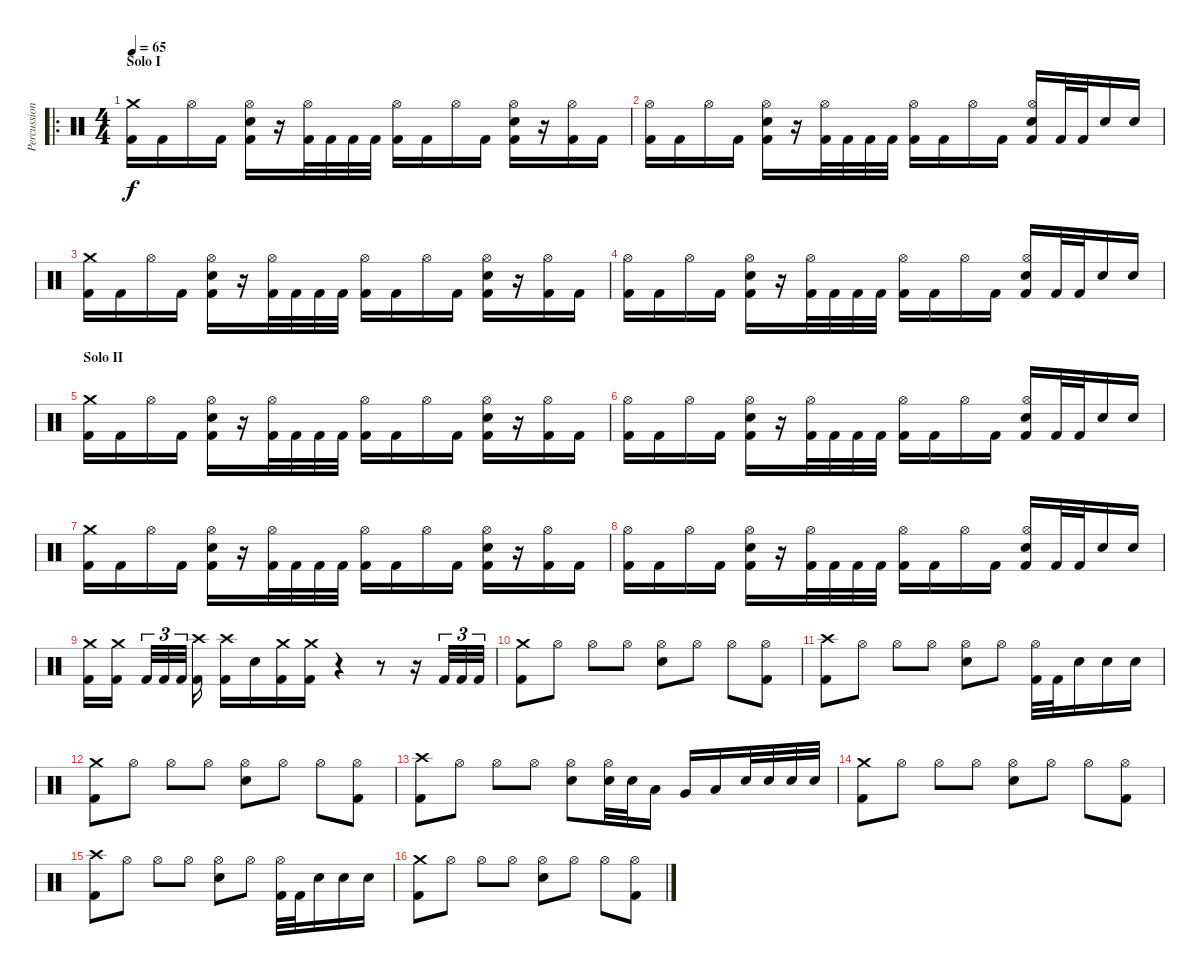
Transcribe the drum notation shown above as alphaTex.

\track ("Percussion" "Percussion") {instrument percussion}
\staff {score}
\articulation defaults
\ro
\ts (4 4)
\section ("" "Solo I")
\tempo 65
\clef neutral
\ks c
("Crash medium (hit)" "Kick (hit) 2").16{dy f} "Kick (hit) 2".16 "Hi-Hat (open)".16 "Kick (hit) 2".16 ("Hi-Hat (open)" "Electric Snare (hit)" "Kick (hit) 2").16 r.16 ("Hi-Hat (open)" "Kick (hit) 2").32 "Kick (hit) 2".32 "Kick (hit) 2".32 "Kick (hit) 2".32 ("Hi-Hat (open)" "Kick (hit) 2").16 "Kick (hit) 2".16 "Hi-Hat (open)".16 "Kick (hit) 2".16 ("Hi-Hat (open)" "Electric Snare (hit)" "Kick (hit) 2").16 r.16 ("Hi-Hat (open)" "Kick (hit) 2").16 "Kick (hit) 2".16 |
("Hi-Hat (open)" "Kick (hit) 2").16 "Kick (hit) 2".16 "Hi-Hat (open)".16 "Kick (hit) 2".16 ("Hi-Hat (open)" "Electric Snare (hit)" "Kick (hit) 2").16 r.16 ("Hi-Hat (open)" "Kick (hit) 2").32 "Kick (hit) 2".32 "Kick (hit) 2".32 "Kick (hit) 2".32 ("Hi-Hat (open)" "Kick (hit) 2").16 "Kick (hit) 2".16 "Hi-Hat (open)".16 "Kick (hit) 2".16 ("Hi-Hat (open)" "Electric Snare (hit)" "Kick (hit) 2").16 "Kick (hit) 2".32 "Kick (hit) 2".32 "Electric Snare (hit)".16 "Electric Snare (hit)".16 |
("Crash medium (hit)" "Kick (hit) 2").16 "Kick (hit) 2".16 "Hi-Hat (open)".16 "Kick (hit) 2".16 ("Hi-Hat (open)" "Electric Snare (hit)" "Kick (hit) 2").16 r.16 ("Hi-Hat (open)" "Kick (hit) 2").32 "Kick (hit) 2".32 "Kick (hit) 2".32 "Kick (hit) 2".32 ("Hi-Hat (open)" "Kick (hit) 2").16 "Kick (hit) 2".16 "Hi-Hat (open)".16 "Kick (hit) 2".16 ("Hi-Hat (open)" "Electric Snare (hit)" "Kick (hit) 2").16 r.16 ("Hi-Hat (open)" "Kick (hit) 2").16 "Kick (hit) 2".16 |
("Hi-Hat (open)" "Kick (hit) 2").16 "Kick (hit) 2".16 "Hi-Hat (open)".16 "Kick (hit) 2".16 ("Hi-Hat (open)" "Electric Snare (hit)" "Kick (hit) 2").16 r.16 ("Hi-Hat (open)" "Kick (hit) 2").32 "Kick (hit) 2".32 "Kick (hit) 2".32 "Kick (hit) 2".32 ("Hi-Hat (open)" "Kick (hit) 2").16 "Kick (hit) 2".16 "Hi-Hat (open)".16 "Kick (hit) 2".16 ("Hi-Hat (open)" "Electric Snare (hit)" "Kick (hit) 2").16 "Kick (hit) 2".32 "Kick (hit) 2".32 "Electric Snare (hit)".16 "Electric Snare (hit)".16 |
\section ("" "Solo II")
("Crash medium (hit)" "Kick (hit) 2").16 "Kick (hit) 2".16 "Hi-Hat (open)".16 "Kick (hit) 2".16 ("Hi-Hat (open)" "Electric Snare (hit)" "Kick (hit) 2").16 r.16 ("Hi-Hat (open)" "Kick (hit) 2").32 "Kick (hit) 2".32 "Kick (hit) 2".32 "Kick (hit) 2".32 ("Hi-Hat (open)" "Kick (hit) 2").16 "Kick (hit) 2".16 "Hi-Hat (open)".16 "Kick (hit) 2".16 ("Hi-Hat (open)" "Electric Snare (hit)" "Kick (hit) 2").16 r.16 ("Hi-Hat (open)" "Kick (hit) 2").16 "Kick (hit) 2".16 |
("Hi-Hat (open)" "Kick (hit) 2").16 "Kick (hit) 2".16 "Hi-Hat (open)".16 "Kick (hit) 2".16 ("Hi-Hat (open)" "Electric Snare (hit)" "Kick (hit) 2").16 r.16 ("Hi-Hat (open)" "Kick (hit) 2").32 "Kick (hit) 2".32 "Kick (hit) 2".32 "Kick (hit) 2".32 ("Hi-Hat (open)" "Kick (hit) 2").16 "Kick (hit) 2".16 "Hi-Hat (open)".16 "Kick (hit) 2".16 ("Hi-Hat (open)" "Electric Snare (hit)" "Kick (hit) 2").16 "Kick (hit) 2".32 "Kick (hit) 2".32 "Electric Snare (hit)".16 "Electric Snare (hit)".16 |
("Crash medium (hit)" "Kick (hit) 2").16 "Kick (hit) 2".16 "Hi-Hat (open)".16 "Kick (hit) 2".16 ("Hi-Hat (open)" "Electric Snare (hit)" "Kick (hit) 2").16 r.16 ("Hi-Hat (open)" "Kick (hit) 2").32 "Kick (hit) 2".32 "Kick (hit) 2".32 "Kick (hit) 2".32 ("Hi-Hat (open)" "Kick (hit) 2").16 "Kick (hit) 2".16 "Hi-Hat (open)".16 "Kick (hit) 2".16 ("Hi-Hat (open)" "Electric Snare (hit)" "Kick (hit) 2").16 r.16 ("Hi-Hat (open)" "Kick (hit) 2").16 "Kick (hit) 2".16 |
("Hi-Hat (open)" "Kick (hit) 2").16 "Kick (hit) 2".16 "Hi-Hat (open)".16 "Kick (hit) 2".16 ("Hi-Hat (open)" "Electric Snare (hit)" "Kick (hit) 2").16 r.16 ("Hi-Hat (open)" "Kick (hit) 2").32 "Kick (hit) 2".32 "Kick (hit) 2".32 "Kick (hit) 2".32 ("Hi-Hat (open)" "Kick (hit) 2").16 "Kick (hit) 2".16 "Hi-Hat (open)".16 "Kick (hit) 2".16 ("Hi-Hat (open)" "Electric Snare (hit)" "Kick (hit) 2").16 "Kick (hit) 2".32 "Kick (hit) 2".32 "Electric Snare (hit)".16 "Electric Snare (hit)".16 |
("Crash medium (hit)" "Kick (hit) 2").16 ("Crash medium (hit)" "Kick (hit) 2").16 "Kick (hit) 2".32{tu (3 2)} "Kick (hit) 2".32{tu (3 2)} "Kick (hit) 2".32{tu (3 2)} ("Crash high (hit)" "Kick (hit) 2").16 ("Crash high (hit)" "Kick (hit) 2").16 "Electric Snare (hit)".16 ("Crash medium (hit)" "Kick (hit) 2").16 ("Crash medium (hit)" "Kick (hit) 2").16 r.4 r.8 r.16 "Kick (hit) 2".32{tu (3 2)} "Kick (hit) 2".32{tu (3 2)} "Kick (hit) 2".32{tu (3 2)} |
("Crash medium (hit)" "Kick (hit) 2").8 "Hi-Hat (open)".8 "Hi-Hat (open)".8 "Hi-Hat (open)".8 ("Hi-Hat (open)" "Electric Snare (hit)").8 "Hi-Hat (open)".8 "Hi-Hat (open)".8 ("Hi-Hat (open)" "Kick (hit) 2").8 |
("Crash high (hit)" "Kick (hit) 2").8 "Hi-Hat (open)".8 "Hi-Hat (open)".8 "Hi-Hat (open)".8 ("Hi-Hat (open)" "Electric Snare (hit)").8 "Hi-Hat (open)".8 ("Hi-Hat (open)" "Kick (hit) 2").32 "Kick (hit) 2".32 "Electric Snare (hit)".16 "Electric Snare (hit)".16 "Electric Snare (hit)".16 |
("Crash medium (hit)" "Kick (hit) 2").8 "Hi-Hat (open)".8 "Hi-Hat (open)".8 "Hi-Hat (open)".8 ("Hi-Hat (open)" "Electric Snare (hit)").8 "Hi-Hat (open)".8 "Hi-Hat (open)".8 ("Hi-Hat (open)" "Kick (hit) 2").8 |
("Crash high (hit)" "Kick (hit) 2").8 "Hi-Hat (open)".8 "Hi-Hat (open)".8 "Hi-Hat (open)".8 ("Hi-Hat (open)" "Electric Snare (hit)").8 ("Hi-Hat (open)" "Electric Snare (hit)").32 "Electric Snare (hit)".32 "Low Tom (hit)".16 "Very Low Tom (hit)".16 "Low Floor Tom (hit)".16 "Electric Snare (hit)".32 "Electric Snare (hit)".32 "Electric Snare (hit)".32 "Electric Snare (hit)".32 |
("Crash medium (hit)" "Kick (hit) 2").8 "Hi-Hat (open)".8 "Hi-Hat (open)".8 "Hi-Hat (open)".8 ("Hi-Hat (open)" "Electric Snare (hit)").8 "Hi-Hat (open)".8 "Hi-Hat (open)".8 ("Hi-Hat (open)" "Kick (hit) 2").8 |
("Crash high (hit)" "Kick (hit) 2").8 "Hi-Hat (open)".8 "Hi-Hat (open)".8 "Hi-Hat (open)".8 ("Hi-Hat (open)" "Electric Snare (hit)").8 "Hi-Hat (open)".8 ("Hi-Hat (open)" "Kick (hit) 2").32 "Kick (hit) 2".32 "Electric Snare (hit)".16 "Electric Snare (hit)".16 "Electric Snare (hit)".16 |
("Crash medium (hit)" "Kick (hit) 2").8 "Hi-Hat (open)".8 "Hi-Hat (open)".8 "Hi-Hat (open)".8 ("Hi-Hat (open)" "Electric Snare (hit)").8 "Hi-Hat (open)".8 "Hi-Hat (open)".8 ("Hi-Hat (open)" "Kick (hit) 2").8
